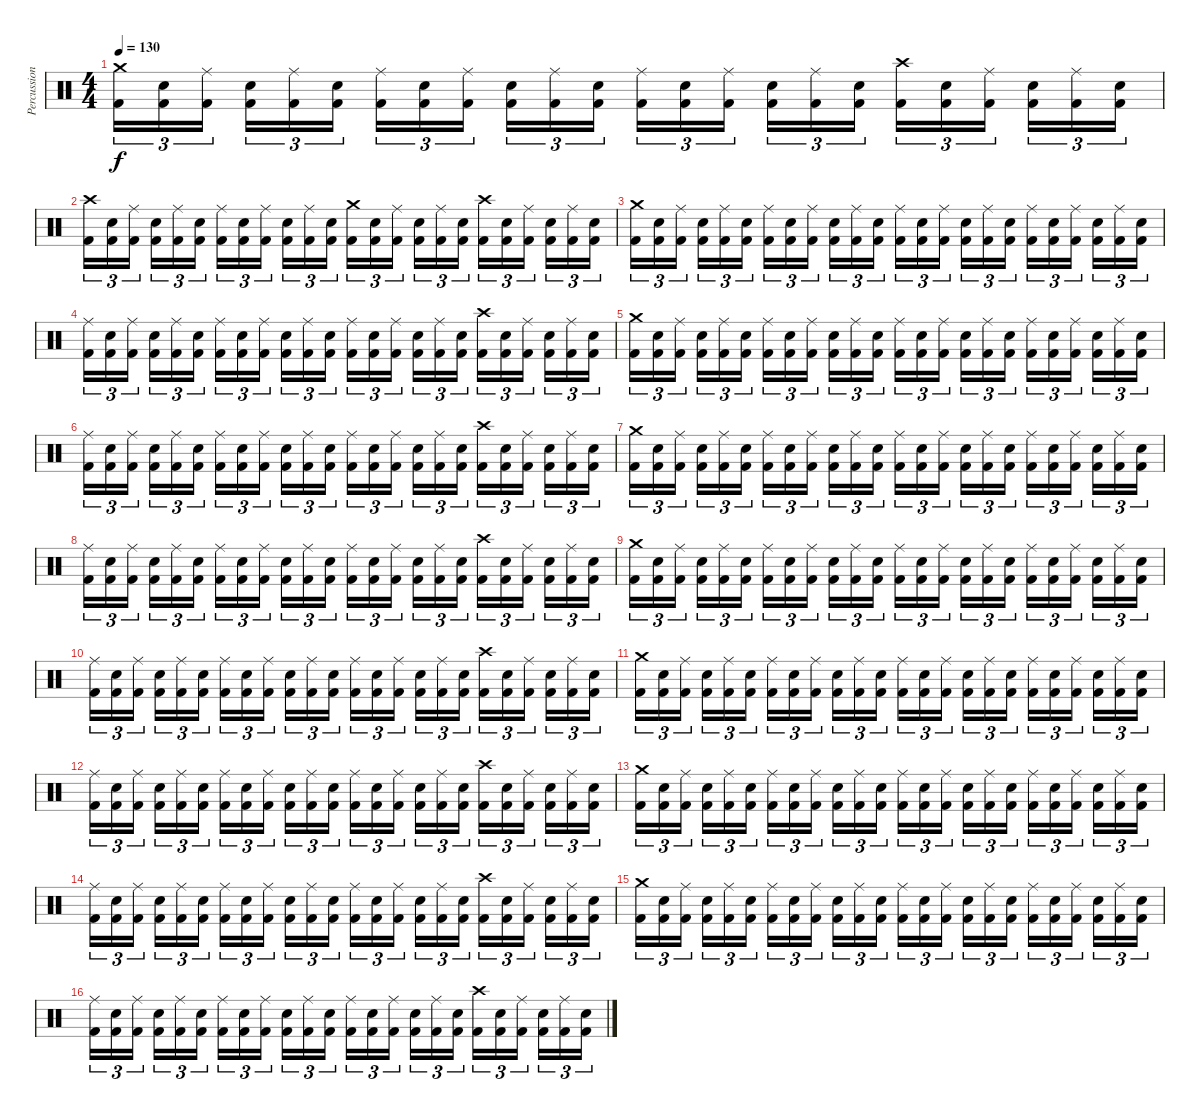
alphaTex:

\track ("Percussion" "Percussion") {instrument percussion}
\staff {score}
\articulation defaults
\ts (4 4)
\tempo 130
\clef neutral
\ks c
("Kick (hit) 2" "Crash medium (hit)").16{tu (3 2) dy f} ("Kick (hit) 2" "Electric Snare (hit)").16{tu (3 2)} ("Kick (hit) 2" "Ride (middle)").16{tu (3 2)} ("Kick (hit) 2" "Electric Snare (hit)").16{tu (3 2)} ("Kick (hit) 2" "Ride (middle)").16{tu (3 2)} ("Kick (hit) 2" "Electric Snare (hit)").16{tu (3 2)} ("Kick (hit) 2" "Ride (middle)").16{tu (3 2)} ("Kick (hit) 2" "Electric Snare (hit)").16{tu (3 2)} ("Kick (hit) 2" "Ride (middle)").16{tu (3 2)} ("Kick (hit) 2" "Electric Snare (hit)").16{tu (3 2)} ("Kick (hit) 2" "Ride (middle)").16{tu (3 2)} ("Kick (hit) 2" "Electric Snare (hit)").16{tu (3 2)} ("Kick (hit) 2" "Ride (middle)").16{tu (3 2)} ("Kick (hit) 2" "Electric Snare (hit)").16{tu (3 2)} ("Kick (hit) 2" "Ride (middle)").16{tu (3 2)} ("Kick (hit) 2" "Electric Snare (hit)").16{tu (3 2)} ("Kick (hit) 2" "Ride (middle)").16{tu (3 2)} ("Kick (hit) 2" "Electric Snare (hit)").16{tu (3 2)} ("Kick (hit) 2" "Crash high (hit)").16{tu (3 2)} ("Kick (hit) 2" "Electric Snare (hit)").16{tu (3 2)} ("Kick (hit) 2" "Ride (middle)").16{tu (3 2)} ("Kick (hit) 2" "Electric Snare (hit)").16{tu (3 2)} ("Kick (hit) 2" "Ride (middle)").16{tu (3 2)} ("Kick (hit) 2" "Electric Snare (hit)").16{tu (3 2)} |
("Kick (hit) 2" "Crash high (hit)").16{tu (3 2)} ("Kick (hit) 2" "Electric Snare (hit)").16{tu (3 2)} ("Kick (hit) 2" "Ride (middle)").16{tu (3 2)} ("Kick (hit) 2" "Electric Snare (hit)").16{tu (3 2)} ("Kick (hit) 2" "Ride (middle)").16{tu (3 2)} ("Kick (hit) 2" "Electric Snare (hit)").16{tu (3 2)} ("Kick (hit) 2" "Ride (middle)").16{tu (3 2)} ("Kick (hit) 2" "Electric Snare (hit)").16{tu (3 2)} ("Kick (hit) 2" "Ride (middle)").16{tu (3 2)} ("Kick (hit) 2" "Electric Snare (hit)").16{tu (3 2)} ("Kick (hit) 2" "Ride (middle)").16{tu (3 2)} ("Kick (hit) 2" "Electric Snare (hit)").16{tu (3 2)} ("Kick (hit) 2" "Crash medium (hit)").16{tu (3 2)} ("Kick (hit) 2" "Electric Snare (hit)").16{tu (3 2)} ("Kick (hit) 2" "Ride (middle)").16{tu (3 2)} ("Kick (hit) 2" "Electric Snare (hit)").16{tu (3 2)} ("Kick (hit) 2" "Ride (middle)").16{tu (3 2)} ("Kick (hit) 2" "Electric Snare (hit)").16{tu (3 2)} ("Kick (hit) 2" "Crash high (hit)").16{tu (3 2)} ("Kick (hit) 2" "Electric Snare (hit)").16{tu (3 2)} ("Kick (hit) 2" "Ride (middle)").16{tu (3 2)} ("Kick (hit) 2" "Electric Snare (hit)").16{tu (3 2)} ("Kick (hit) 2" "Ride (middle)").16{tu (3 2)} ("Kick (hit) 2" "Electric Snare (hit)").16{tu (3 2)} |
("Kick (hit) 2" "Crash medium (hit)").16{tu (3 2)} ("Kick (hit) 2" "Electric Snare (hit)").16{tu (3 2)} ("Kick (hit) 2" "Ride (middle)").16{tu (3 2)} ("Kick (hit) 2" "Electric Snare (hit)").16{tu (3 2)} ("Kick (hit) 2" "Ride (middle)").16{tu (3 2)} ("Kick (hit) 2" "Electric Snare (hit)").16{tu (3 2)} ("Kick (hit) 2" "Ride (middle)").16{tu (3 2)} ("Kick (hit) 2" "Electric Snare (hit)").16{tu (3 2)} ("Kick (hit) 2" "Ride (middle)").16{tu (3 2)} ("Kick (hit) 2" "Electric Snare (hit)").16{tu (3 2)} ("Kick (hit) 2" "Ride (middle)").16{tu (3 2)} ("Kick (hit) 2" "Electric Snare (hit)").16{tu (3 2)} ("Kick (hit) 2" "Ride (middle)").16{tu (3 2)} ("Kick (hit) 2" "Electric Snare (hit)").16{tu (3 2)} ("Kick (hit) 2" "Ride (middle)").16{tu (3 2)} ("Kick (hit) 2" "Electric Snare (hit)").16{tu (3 2)} ("Kick (hit) 2" "Ride (middle)").16{tu (3 2)} ("Kick (hit) 2" "Electric Snare (hit)").16{tu (3 2)} ("Kick (hit) 2" "Ride (middle)").16{tu (3 2)} ("Kick (hit) 2" "Electric Snare (hit)").16{tu (3 2)} ("Kick (hit) 2" "Ride (middle)").16{tu (3 2)} ("Kick (hit) 2" "Electric Snare (hit)").16{tu (3 2)} ("Kick (hit) 2" "Ride (middle)").16{tu (3 2)} ("Kick (hit) 2" "Electric Snare (hit)").16{tu (3 2)} |
("Kick (hit) 2" "Ride (middle)").16{tu (3 2)} ("Kick (hit) 2" "Electric Snare (hit)").16{tu (3 2)} ("Kick (hit) 2" "Ride (middle)").16{tu (3 2)} ("Kick (hit) 2" "Electric Snare (hit)").16{tu (3 2)} ("Kick (hit) 2" "Ride (middle)").16{tu (3 2)} ("Kick (hit) 2" "Electric Snare (hit)").16{tu (3 2)} ("Kick (hit) 2" "Ride (middle)").16{tu (3 2)} ("Kick (hit) 2" "Electric Snare (hit)").16{tu (3 2)} ("Kick (hit) 2" "Ride (middle)").16{tu (3 2)} ("Kick (hit) 2" "Electric Snare (hit)").16{tu (3 2)} ("Kick (hit) 2" "Ride (middle)").16{tu (3 2)} ("Kick (hit) 2" "Electric Snare (hit)").16{tu (3 2)} ("Kick (hit) 2" "Ride (middle)").16{tu (3 2)} ("Kick (hit) 2" "Electric Snare (hit)").16{tu (3 2)} ("Kick (hit) 2" "Ride (middle)").16{tu (3 2)} ("Kick (hit) 2" "Electric Snare (hit)").16{tu (3 2)} ("Kick (hit) 2" "Ride (middle)").16{tu (3 2)} ("Kick (hit) 2" "Electric Snare (hit)").16{tu (3 2)} ("Kick (hit) 2" "Crash high (hit)").16{tu (3 2)} ("Kick (hit) 2" "Electric Snare (hit)").16{tu (3 2)} ("Kick (hit) 2" "Ride (middle)").16{tu (3 2)} ("Kick (hit) 2" "Electric Snare (hit)").16{tu (3 2)} ("Kick (hit) 2" "Ride (middle)").16{tu (3 2)} ("Kick (hit) 2" "Electric Snare (hit)").16{tu (3 2)} |
("Kick (hit) 2" "Crash medium (hit)").16{tu (3 2)} ("Kick (hit) 2" "Electric Snare (hit)").16{tu (3 2)} ("Kick (hit) 2" "Ride (middle)").16{tu (3 2)} ("Kick (hit) 2" "Electric Snare (hit)").16{tu (3 2)} ("Kick (hit) 2" "Ride (middle)").16{tu (3 2)} ("Kick (hit) 2" "Electric Snare (hit)").16{tu (3 2)} ("Kick (hit) 2" "Ride (middle)").16{tu (3 2)} ("Kick (hit) 2" "Electric Snare (hit)").16{tu (3 2)} ("Kick (hit) 2" "Ride (middle)").16{tu (3 2)} ("Kick (hit) 2" "Electric Snare (hit)").16{tu (3 2)} ("Kick (hit) 2" "Ride (middle)").16{tu (3 2)} ("Kick (hit) 2" "Electric Snare (hit)").16{tu (3 2)} ("Kick (hit) 2" "Ride (middle)").16{tu (3 2)} ("Kick (hit) 2" "Electric Snare (hit)").16{tu (3 2)} ("Kick (hit) 2" "Ride (middle)").16{tu (3 2)} ("Kick (hit) 2" "Electric Snare (hit)").16{tu (3 2)} ("Kick (hit) 2" "Ride (middle)").16{tu (3 2)} ("Kick (hit) 2" "Electric Snare (hit)").16{tu (3 2)} ("Kick (hit) 2" "Ride (middle)").16{tu (3 2)} ("Kick (hit) 2" "Electric Snare (hit)").16{tu (3 2)} ("Kick (hit) 2" "Ride (middle)").16{tu (3 2)} ("Kick (hit) 2" "Electric Snare (hit)").16{tu (3 2)} ("Kick (hit) 2" "Ride (middle)").16{tu (3 2)} ("Kick (hit) 2" "Electric Snare (hit)").16{tu (3 2)} |
("Kick (hit) 2" "Ride (middle)").16{tu (3 2)} ("Kick (hit) 2" "Electric Snare (hit)").16{tu (3 2)} ("Kick (hit) 2" "Ride (middle)").16{tu (3 2)} ("Kick (hit) 2" "Electric Snare (hit)").16{tu (3 2)} ("Kick (hit) 2" "Ride (middle)").16{tu (3 2)} ("Kick (hit) 2" "Electric Snare (hit)").16{tu (3 2)} ("Kick (hit) 2" "Ride (middle)").16{tu (3 2)} ("Kick (hit) 2" "Electric Snare (hit)").16{tu (3 2)} ("Kick (hit) 2" "Ride (middle)").16{tu (3 2)} ("Kick (hit) 2" "Electric Snare (hit)").16{tu (3 2)} ("Kick (hit) 2" "Ride (middle)").16{tu (3 2)} ("Kick (hit) 2" "Electric Snare (hit)").16{tu (3 2)} ("Kick (hit) 2" "Ride (middle)").16{tu (3 2)} ("Kick (hit) 2" "Electric Snare (hit)").16{tu (3 2)} ("Kick (hit) 2" "Ride (middle)").16{tu (3 2)} ("Kick (hit) 2" "Electric Snare (hit)").16{tu (3 2)} ("Kick (hit) 2" "Ride (middle)").16{tu (3 2)} ("Kick (hit) 2" "Electric Snare (hit)").16{tu (3 2)} ("Kick (hit) 2" "Crash high (hit)").16{tu (3 2)} ("Kick (hit) 2" "Electric Snare (hit)").16{tu (3 2)} ("Kick (hit) 2" "Ride (middle)").16{tu (3 2)} ("Kick (hit) 2" "Electric Snare (hit)").16{tu (3 2)} ("Kick (hit) 2" "Ride (middle)").16{tu (3 2)} ("Kick (hit) 2" "Electric Snare (hit)").16{tu (3 2)} |
("Kick (hit) 2" "Crash medium (hit)").16{tu (3 2)} ("Kick (hit) 2" "Electric Snare (hit)").16{tu (3 2)} ("Kick (hit) 2" "Ride (middle)").16{tu (3 2)} ("Kick (hit) 2" "Electric Snare (hit)").16{tu (3 2)} ("Kick (hit) 2" "Ride (middle)").16{tu (3 2)} ("Kick (hit) 2" "Electric Snare (hit)").16{tu (3 2)} ("Kick (hit) 2" "Ride (middle)").16{tu (3 2)} ("Kick (hit) 2" "Electric Snare (hit)").16{tu (3 2)} ("Kick (hit) 2" "Ride (middle)").16{tu (3 2)} ("Kick (hit) 2" "Electric Snare (hit)").16{tu (3 2)} ("Kick (hit) 2" "Ride (middle)").16{tu (3 2)} ("Kick (hit) 2" "Electric Snare (hit)").16{tu (3 2)} ("Kick (hit) 2" "Ride (middle)").16{tu (3 2)} ("Kick (hit) 2" "Electric Snare (hit)").16{tu (3 2)} ("Kick (hit) 2" "Ride (middle)").16{tu (3 2)} ("Kick (hit) 2" "Electric Snare (hit)").16{tu (3 2)} ("Kick (hit) 2" "Ride (middle)").16{tu (3 2)} ("Kick (hit) 2" "Electric Snare (hit)").16{tu (3 2)} ("Kick (hit) 2" "Ride (middle)").16{tu (3 2)} ("Kick (hit) 2" "Electric Snare (hit)").16{tu (3 2)} ("Kick (hit) 2" "Ride (middle)").16{tu (3 2)} ("Kick (hit) 2" "Electric Snare (hit)").16{tu (3 2)} ("Kick (hit) 2" "Ride (middle)").16{tu (3 2)} ("Kick (hit) 2" "Electric Snare (hit)").16{tu (3 2)} |
("Kick (hit) 2" "Ride (middle)").16{tu (3 2)} ("Kick (hit) 2" "Electric Snare (hit)").16{tu (3 2)} ("Kick (hit) 2" "Ride (middle)").16{tu (3 2)} ("Kick (hit) 2" "Electric Snare (hit)").16{tu (3 2)} ("Kick (hit) 2" "Ride (middle)").16{tu (3 2)} ("Kick (hit) 2" "Electric Snare (hit)").16{tu (3 2)} ("Kick (hit) 2" "Ride (middle)").16{tu (3 2)} ("Kick (hit) 2" "Electric Snare (hit)").16{tu (3 2)} ("Kick (hit) 2" "Ride (middle)").16{tu (3 2)} ("Kick (hit) 2" "Electric Snare (hit)").16{tu (3 2)} ("Kick (hit) 2" "Ride (middle)").16{tu (3 2)} ("Kick (hit) 2" "Electric Snare (hit)").16{tu (3 2)} ("Kick (hit) 2" "Ride (middle)").16{tu (3 2)} ("Kick (hit) 2" "Electric Snare (hit)").16{tu (3 2)} ("Kick (hit) 2" "Ride (middle)").16{tu (3 2)} ("Kick (hit) 2" "Electric Snare (hit)").16{tu (3 2)} ("Kick (hit) 2" "Ride (middle)").16{tu (3 2)} ("Kick (hit) 2" "Electric Snare (hit)").16{tu (3 2)} ("Kick (hit) 2" "Crash high (hit)").16{tu (3 2)} ("Kick (hit) 2" "Electric Snare (hit)").16{tu (3 2)} ("Kick (hit) 2" "Ride (middle)").16{tu (3 2)} ("Kick (hit) 2" "Electric Snare (hit)").16{tu (3 2)} ("Kick (hit) 2" "Ride (middle)").16{tu (3 2)} ("Kick (hit) 2" "Electric Snare (hit)").16{tu (3 2)} |
("Kick (hit) 2" "Crash medium (hit)").16{tu (3 2)} ("Kick (hit) 2" "Electric Snare (hit)").16{tu (3 2)} ("Kick (hit) 2" "Ride (middle)").16{tu (3 2)} ("Kick (hit) 2" "Electric Snare (hit)").16{tu (3 2)} ("Kick (hit) 2" "Ride (middle)").16{tu (3 2)} ("Kick (hit) 2" "Electric Snare (hit)").16{tu (3 2)} ("Kick (hit) 2" "Ride (middle)").16{tu (3 2)} ("Kick (hit) 2" "Electric Snare (hit)").16{tu (3 2)} ("Kick (hit) 2" "Ride (middle)").16{tu (3 2)} ("Kick (hit) 2" "Electric Snare (hit)").16{tu (3 2)} ("Kick (hit) 2" "Ride (middle)").16{tu (3 2)} ("Kick (hit) 2" "Electric Snare (hit)").16{tu (3 2)} ("Kick (hit) 2" "Ride (middle)").16{tu (3 2)} ("Kick (hit) 2" "Electric Snare (hit)").16{tu (3 2)} ("Kick (hit) 2" "Ride (middle)").16{tu (3 2)} ("Kick (hit) 2" "Electric Snare (hit)").16{tu (3 2)} ("Kick (hit) 2" "Ride (middle)").16{tu (3 2)} ("Kick (hit) 2" "Electric Snare (hit)").16{tu (3 2)} ("Kick (hit) 2" "Ride (middle)").16{tu (3 2)} ("Kick (hit) 2" "Electric Snare (hit)").16{tu (3 2)} ("Kick (hit) 2" "Ride (middle)").16{tu (3 2)} ("Kick (hit) 2" "Electric Snare (hit)").16{tu (3 2)} ("Kick (hit) 2" "Ride (middle)").16{tu (3 2)} ("Kick (hit) 2" "Electric Snare (hit)").16{tu (3 2)} |
("Kick (hit) 2" "Ride (middle)").16{tu (3 2)} ("Kick (hit) 2" "Electric Snare (hit)").16{tu (3 2)} ("Kick (hit) 2" "Ride (middle)").16{tu (3 2)} ("Kick (hit) 2" "Electric Snare (hit)").16{tu (3 2)} ("Kick (hit) 2" "Ride (middle)").16{tu (3 2)} ("Kick (hit) 2" "Electric Snare (hit)").16{tu (3 2)} ("Kick (hit) 2" "Ride (middle)").16{tu (3 2)} ("Kick (hit) 2" "Electric Snare (hit)").16{tu (3 2)} ("Kick (hit) 2" "Ride (middle)").16{tu (3 2)} ("Kick (hit) 2" "Electric Snare (hit)").16{tu (3 2)} ("Kick (hit) 2" "Ride (middle)").16{tu (3 2)} ("Kick (hit) 2" "Electric Snare (hit)").16{tu (3 2)} ("Kick (hit) 2" "Ride (middle)").16{tu (3 2)} ("Kick (hit) 2" "Electric Snare (hit)").16{tu (3 2)} ("Kick (hit) 2" "Ride (middle)").16{tu (3 2)} ("Kick (hit) 2" "Electric Snare (hit)").16{tu (3 2)} ("Kick (hit) 2" "Ride (middle)").16{tu (3 2)} ("Kick (hit) 2" "Electric Snare (hit)").16{tu (3 2)} ("Kick (hit) 2" "Crash high (hit)").16{tu (3 2)} ("Kick (hit) 2" "Electric Snare (hit)").16{tu (3 2)} ("Kick (hit) 2" "Ride (middle)").16{tu (3 2)} ("Kick (hit) 2" "Electric Snare (hit)").16{tu (3 2)} ("Kick (hit) 2" "Ride (middle)").16{tu (3 2)} ("Kick (hit) 2" "Electric Snare (hit)").16{tu (3 2)} |
("Kick (hit) 2" "Crash medium (hit)").16{tu (3 2)} ("Kick (hit) 2" "Electric Snare (hit)").16{tu (3 2)} ("Kick (hit) 2" "Ride (middle)").16{tu (3 2)} ("Kick (hit) 2" "Electric Snare (hit)").16{tu (3 2)} ("Kick (hit) 2" "Ride (middle)").16{tu (3 2)} ("Kick (hit) 2" "Electric Snare (hit)").16{tu (3 2)} ("Kick (hit) 2" "Ride (middle)").16{tu (3 2)} ("Kick (hit) 2" "Electric Snare (hit)").16{tu (3 2)} ("Kick (hit) 2" "Ride (middle)").16{tu (3 2)} ("Kick (hit) 2" "Electric Snare (hit)").16{tu (3 2)} ("Kick (hit) 2" "Ride (middle)").16{tu (3 2)} ("Kick (hit) 2" "Electric Snare (hit)").16{tu (3 2)} ("Kick (hit) 2" "Ride (middle)").16{tu (3 2)} ("Kick (hit) 2" "Electric Snare (hit)").16{tu (3 2)} ("Kick (hit) 2" "Ride (middle)").16{tu (3 2)} ("Kick (hit) 2" "Electric Snare (hit)").16{tu (3 2)} ("Kick (hit) 2" "Ride (middle)").16{tu (3 2)} ("Kick (hit) 2" "Electric Snare (hit)").16{tu (3 2)} ("Kick (hit) 2" "Ride (middle)").16{tu (3 2)} ("Kick (hit) 2" "Electric Snare (hit)").16{tu (3 2)} ("Kick (hit) 2" "Ride (middle)").16{tu (3 2)} ("Kick (hit) 2" "Electric Snare (hit)").16{tu (3 2)} ("Kick (hit) 2" "Ride (middle)").16{tu (3 2)} ("Kick (hit) 2" "Electric Snare (hit)").16{tu (3 2)} |
("Kick (hit) 2" "Ride (middle)").16{tu (3 2)} ("Kick (hit) 2" "Electric Snare (hit)").16{tu (3 2)} ("Kick (hit) 2" "Ride (middle)").16{tu (3 2)} ("Kick (hit) 2" "Electric Snare (hit)").16{tu (3 2)} ("Kick (hit) 2" "Ride (middle)").16{tu (3 2)} ("Kick (hit) 2" "Electric Snare (hit)").16{tu (3 2)} ("Kick (hit) 2" "Ride (middle)").16{tu (3 2)} ("Kick (hit) 2" "Electric Snare (hit)").16{tu (3 2)} ("Kick (hit) 2" "Ride (middle)").16{tu (3 2)} ("Kick (hit) 2" "Electric Snare (hit)").16{tu (3 2)} ("Kick (hit) 2" "Ride (middle)").16{tu (3 2)} ("Kick (hit) 2" "Electric Snare (hit)").16{tu (3 2)} ("Kick (hit) 2" "Ride (middle)").16{tu (3 2)} ("Kick (hit) 2" "Electric Snare (hit)").16{tu (3 2)} ("Kick (hit) 2" "Ride (middle)").16{tu (3 2)} ("Kick (hit) 2" "Electric Snare (hit)").16{tu (3 2)} ("Kick (hit) 2" "Ride (middle)").16{tu (3 2)} ("Kick (hit) 2" "Electric Snare (hit)").16{tu (3 2)} ("Kick (hit) 2" "Crash high (hit)").16{tu (3 2)} ("Kick (hit) 2" "Electric Snare (hit)").16{tu (3 2)} ("Kick (hit) 2" "Ride (middle)").16{tu (3 2)} ("Kick (hit) 2" "Electric Snare (hit)").16{tu (3 2)} ("Kick (hit) 2" "Ride (middle)").16{tu (3 2)} ("Kick (hit) 2" "Electric Snare (hit)").16{tu (3 2)} |
("Kick (hit) 2" "Crash medium (hit)").16{tu (3 2)} ("Kick (hit) 2" "Electric Snare (hit)").16{tu (3 2)} ("Kick (hit) 2" "Ride (middle)").16{tu (3 2)} ("Kick (hit) 2" "Electric Snare (hit)").16{tu (3 2)} ("Kick (hit) 2" "Ride (middle)").16{tu (3 2)} ("Kick (hit) 2" "Electric Snare (hit)").16{tu (3 2)} ("Kick (hit) 2" "Ride (middle)").16{tu (3 2)} ("Kick (hit) 2" "Electric Snare (hit)").16{tu (3 2)} ("Kick (hit) 2" "Ride (middle)").16{tu (3 2)} ("Kick (hit) 2" "Electric Snare (hit)").16{tu (3 2)} ("Kick (hit) 2" "Ride (middle)").16{tu (3 2)} ("Kick (hit) 2" "Electric Snare (hit)").16{tu (3 2)} ("Kick (hit) 2" "Ride (middle)").16{tu (3 2)} ("Kick (hit) 2" "Electric Snare (hit)").16{tu (3 2)} ("Kick (hit) 2" "Ride (middle)").16{tu (3 2)} ("Kick (hit) 2" "Electric Snare (hit)").16{tu (3 2)} ("Kick (hit) 2" "Ride (middle)").16{tu (3 2)} ("Kick (hit) 2" "Electric Snare (hit)").16{tu (3 2)} ("Kick (hit) 2" "Ride (middle)").16{tu (3 2)} ("Kick (hit) 2" "Electric Snare (hit)").16{tu (3 2)} ("Kick (hit) 2" "Ride (middle)").16{tu (3 2)} ("Kick (hit) 2" "Electric Snare (hit)").16{tu (3 2)} ("Kick (hit) 2" "Ride (middle)").16{tu (3 2)} ("Kick (hit) 2" "Electric Snare (hit)").16{tu (3 2)} |
("Kick (hit) 2" "Ride (middle)").16{tu (3 2)} ("Kick (hit) 2" "Electric Snare (hit)").16{tu (3 2)} ("Kick (hit) 2" "Ride (middle)").16{tu (3 2)} ("Kick (hit) 2" "Electric Snare (hit)").16{tu (3 2)} ("Kick (hit) 2" "Ride (middle)").16{tu (3 2)} ("Kick (hit) 2" "Electric Snare (hit)").16{tu (3 2)} ("Kick (hit) 2" "Ride (middle)").16{tu (3 2)} ("Kick (hit) 2" "Electric Snare (hit)").16{tu (3 2)} ("Kick (hit) 2" "Ride (middle)").16{tu (3 2)} ("Kick (hit) 2" "Electric Snare (hit)").16{tu (3 2)} ("Kick (hit) 2" "Ride (middle)").16{tu (3 2)} ("Kick (hit) 2" "Electric Snare (hit)").16{tu (3 2)} ("Kick (hit) 2" "Ride (middle)").16{tu (3 2)} ("Kick (hit) 2" "Electric Snare (hit)").16{tu (3 2)} ("Kick (hit) 2" "Ride (middle)").16{tu (3 2)} ("Kick (hit) 2" "Electric Snare (hit)").16{tu (3 2)} ("Kick (hit) 2" "Ride (middle)").16{tu (3 2)} ("Kick (hit) 2" "Electric Snare (hit)").16{tu (3 2)} ("Kick (hit) 2" "Crash high (hit)").16{tu (3 2)} ("Kick (hit) 2" "Electric Snare (hit)").16{tu (3 2)} ("Kick (hit) 2" "Ride (middle)").16{tu (3 2)} ("Kick (hit) 2" "Electric Snare (hit)").16{tu (3 2)} ("Kick (hit) 2" "Ride (middle)").16{tu (3 2)} ("Kick (hit) 2" "Electric Snare (hit)").16{tu (3 2)} |
("Kick (hit) 2" "Crash medium (hit)").16{tu (3 2)} ("Kick (hit) 2" "Electric Snare (hit)").16{tu (3 2)} ("Kick (hit) 2" "Ride (middle)").16{tu (3 2)} ("Kick (hit) 2" "Electric Snare (hit)").16{tu (3 2)} ("Kick (hit) 2" "Ride (middle)").16{tu (3 2)} ("Kick (hit) 2" "Electric Snare (hit)").16{tu (3 2)} ("Kick (hit) 2" "Ride (middle)").16{tu (3 2)} ("Kick (hit) 2" "Electric Snare (hit)").16{tu (3 2)} ("Kick (hit) 2" "Ride (middle)").16{tu (3 2)} ("Kick (hit) 2" "Electric Snare (hit)").16{tu (3 2)} ("Kick (hit) 2" "Ride (middle)").16{tu (3 2)} ("Kick (hit) 2" "Electric Snare (hit)").16{tu (3 2)} ("Kick (hit) 2" "Ride (middle)").16{tu (3 2)} ("Kick (hit) 2" "Electric Snare (hit)").16{tu (3 2)} ("Kick (hit) 2" "Ride (middle)").16{tu (3 2)} ("Kick (hit) 2" "Electric Snare (hit)").16{tu (3 2)} ("Kick (hit) 2" "Ride (middle)").16{tu (3 2)} ("Kick (hit) 2" "Electric Snare (hit)").16{tu (3 2)} ("Kick (hit) 2" "Ride (middle)").16{tu (3 2)} ("Kick (hit) 2" "Electric Snare (hit)").16{tu (3 2)} ("Kick (hit) 2" "Ride (middle)").16{tu (3 2)} ("Kick (hit) 2" "Electric Snare (hit)").16{tu (3 2)} ("Kick (hit) 2" "Ride (middle)").16{tu (3 2)} ("Kick (hit) 2" "Electric Snare (hit)").16{tu (3 2)} |
("Kick (hit) 2" "Ride (middle)").16{tu (3 2)} ("Kick (hit) 2" "Electric Snare (hit)").16{tu (3 2)} ("Kick (hit) 2" "Ride (middle)").16{tu (3 2)} ("Kick (hit) 2" "Electric Snare (hit)").16{tu (3 2)} ("Kick (hit) 2" "Ride (middle)").16{tu (3 2)} ("Kick (hit) 2" "Electric Snare (hit)").16{tu (3 2)} ("Kick (hit) 2" "Ride (middle)").16{tu (3 2)} ("Kick (hit) 2" "Electric Snare (hit)").16{tu (3 2)} ("Kick (hit) 2" "Ride (middle)").16{tu (3 2)} ("Kick (hit) 2" "Electric Snare (hit)").16{tu (3 2)} ("Kick (hit) 2" "Ride (middle)").16{tu (3 2)} ("Kick (hit) 2" "Electric Snare (hit)").16{tu (3 2)} ("Kick (hit) 2" "Ride (middle)").16{tu (3 2)} ("Kick (hit) 2" "Electric Snare (hit)").16{tu (3 2)} ("Kick (hit) 2" "Ride (middle)").16{tu (3 2)} ("Kick (hit) 2" "Electric Snare (hit)").16{tu (3 2)} ("Kick (hit) 2" "Ride (middle)").16{tu (3 2)} ("Kick (hit) 2" "Electric Snare (hit)").16{tu (3 2)} ("Kick (hit) 2" "Crash high (hit)").16{tu (3 2)} ("Kick (hit) 2" "Electric Snare (hit)").16{tu (3 2)} ("Kick (hit) 2" "Ride (middle)").16{tu (3 2)} ("Kick (hit) 2" "Electric Snare (hit)").16{tu (3 2)} ("Kick (hit) 2" "Ride (middle)").16{tu (3 2)} ("Kick (hit) 2" "Electric Snare (hit)").16{tu (3 2)}
